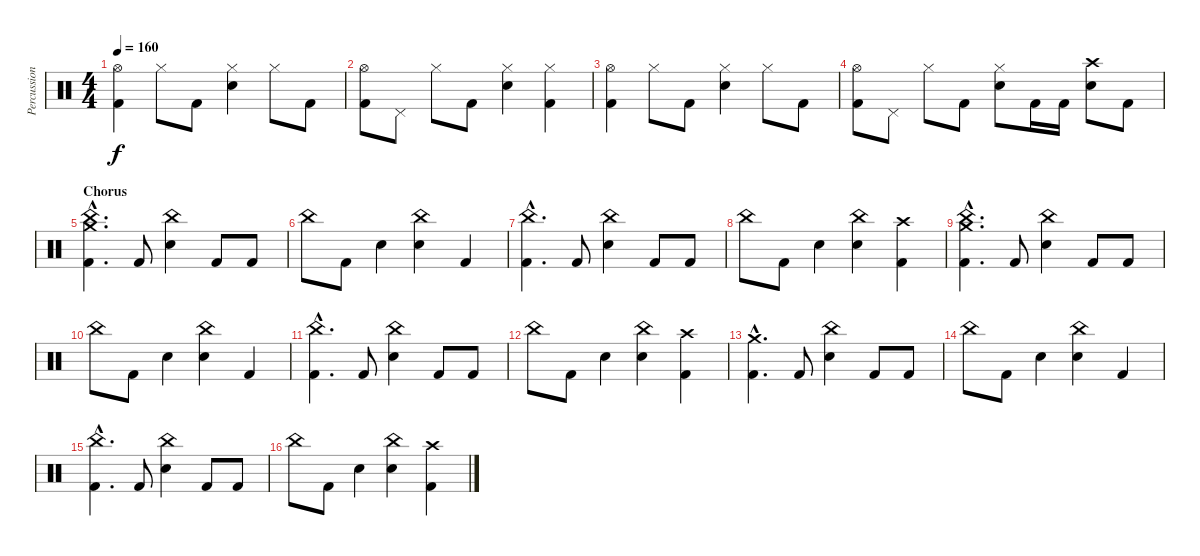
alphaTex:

\track ("Percussion" "Percussion") {instrument percussion}
\staff {score}
\articulation defaults
\ts (4 4)
\tempo 160
\clef neutral
\ks c
("Hi-Hat (open)" "Kick (hit) 2").4{dy f} "Hi-Hat (closed)".8 "Kick (hit) 2".8 ("Hi-Hat (closed)" "Electric Snare (hit)").4 "Hi-Hat (closed)".8 "Kick (hit) 2".8 |
("Hi-Hat (open)" "Kick (hit) 2").8 "Pedal Hi-Hat (hit)".8 "Hi-Hat (closed)".8 "Kick (hit) 2".8 ("Hi-Hat (closed)" "Electric Snare (hit)").4 ("Hi-Hat (closed)" "Kick (hit) 2").4 |
("Hi-Hat (open)" "Kick (hit) 2").4 "Hi-Hat (closed)".8 "Kick (hit) 2".8 ("Hi-Hat (closed)" "Electric Snare (hit)").4 "Hi-Hat (closed)".8 "Kick (hit) 2".8 |
("Hi-Hat (open)" "Kick (hit) 2").8 "Pedal Hi-Hat (hit)".8 "Hi-Hat (closed)".8 "Kick (hit) 2".8 ("Hi-Hat (closed)" "Electric Snare (hit)").8 "Kick (hit) 2".16 "Kick (hit) 2".16 ("Crash high (hit)" "Electric Snare (hit)").8 "Kick (hit) 2".8 |
\section ("" "Chorus")
("China (hit)"{hac} "Crash medium (hit)"{hac} "Kick (hit) 2"{hac}).4{d} "Kick (hit) 2".8 ("China (hit)" "Electric Snare (hit)").4 "Kick (hit) 2".8 "Kick (hit) 2".8 |
"China (hit)".8 "Kick (hit) 2".8 "Electric Snare (hit)".4 ("China (hit)" "Electric Snare (hit)").4 "Kick (hit) 2".4 |
("China (hit)"{hac} "Kick (hit) 2"{hac}).4{d} "Kick (hit) 2".8 ("China (hit)" "Electric Snare (hit)").4 "Kick (hit) 2".8 "Kick (hit) 2".8 |
"China (hit)".8 "Kick (hit) 2".8 "Electric Snare (hit)".4 ("China (hit)" "Electric Snare (hit)").4 ("Crash high (hit)" "Kick (hit) 2").4 |
("China (hit)"{hac} "Crash medium (hit)"{hac} "Kick (hit) 2"{hac}).4{d} "Kick (hit) 2".8 ("China (hit)" "Electric Snare (hit)").4 "Kick (hit) 2".8 "Kick (hit) 2".8 |
"China (hit)".8 "Kick (hit) 2".8 "Electric Snare (hit)".4 ("China (hit)" "Electric Snare (hit)").4 "Kick (hit) 2".4 |
("China (hit)"{hac} "Kick (hit) 2"{hac}).4{d} "Kick (hit) 2".8 ("China (hit)" "Electric Snare (hit)").4 "Kick (hit) 2".8 "Kick (hit) 2".8 |
"China (hit)".8 "Kick (hit) 2".8 "Electric Snare (hit)".4 ("China (hit)" "Electric Snare (hit)").4 ("Crash high (hit)" "Kick (hit) 2").4 |
("Crash medium (hit)"{hac} "Kick (hit) 2"{hac}).4{d} "Kick (hit) 2".8 ("China (hit)" "Electric Snare (hit)").4 "Kick (hit) 2".8 "Kick (hit) 2".8 |
"China (hit)".8 "Kick (hit) 2".8 "Electric Snare (hit)".4 ("China (hit)" "Electric Snare (hit)").4 "Kick (hit) 2".4 |
("China (hit)"{hac} "Kick (hit) 2"{hac}).4{d} "Kick (hit) 2".8 ("China (hit)" "Electric Snare (hit)").4 "Kick (hit) 2".8 "Kick (hit) 2".8 |
"China (hit)".8 "Kick (hit) 2".8 "Electric Snare (hit)".4 ("China (hit)" "Electric Snare (hit)").4 ("Crash high (hit)" "Kick (hit) 2").4
